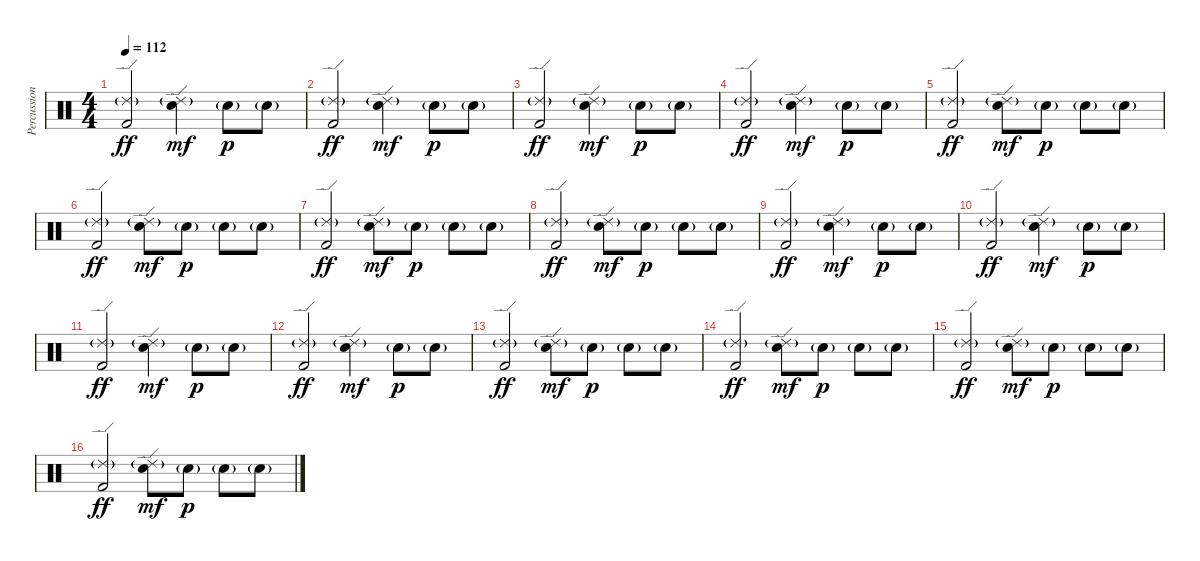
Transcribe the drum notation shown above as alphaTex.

\track ("Percussion" "Percussion") {instrument percussion}
\staff {score}
\articulation defaults
\ts (4 4)
\tempo 112
\clef neutral
\ks c
("Ride (edge) 2"{g} "Kick (hit) 2").2{dy ff} ("Ride (edge) 2"{g} "Electric Snare (hit)").4{dy mf} "Electric Snare (hit)"{g}.8{dy p} "Electric Snare (hit)"{g}.8 |
("Ride (edge) 2"{g} "Kick (hit) 2").2{dy ff} ("Ride (edge) 2"{g} "Electric Snare (hit)").4{dy mf} "Electric Snare (hit)"{g}.8{dy p} "Electric Snare (hit)"{g}.8 |
("Ride (edge) 2"{g} "Kick (hit) 2").2{dy ff} ("Ride (edge) 2"{g} "Electric Snare (hit)").4{dy mf} "Electric Snare (hit)"{g}.8{dy p} "Electric Snare (hit)"{g}.8 |
("Ride (edge) 2"{g} "Kick (hit) 2").2{dy ff} ("Ride (edge) 2"{g} "Electric Snare (hit)").4{dy mf} "Electric Snare (hit)"{g}.8{dy p} "Electric Snare (hit)"{g}.8 |
("Ride (edge) 2"{g} "Kick (hit) 2").2{dy ff} ("Ride (edge) 2"{g} "Electric Snare (hit)").8{dy mf} "Electric Snare (hit)"{g}.8{dy p} "Electric Snare (hit)"{g}.8 "Electric Snare (hit)"{g}.8 |
("Ride (edge) 2"{g} "Kick (hit) 2").2{dy ff} ("Ride (edge) 2"{g} "Electric Snare (hit)").8{dy mf} "Electric Snare (hit)"{g}.8{dy p} "Electric Snare (hit)"{g}.8 "Electric Snare (hit)"{g}.8 |
("Ride (edge) 2"{g} "Kick (hit) 2").2{dy ff} ("Ride (edge) 2"{g} "Electric Snare (hit)").8{dy mf} "Electric Snare (hit)"{g}.8{dy p} "Electric Snare (hit)"{g}.8 "Electric Snare (hit)"{g}.8 |
("Ride (edge) 2"{g} "Kick (hit) 2").2{dy ff} ("Ride (edge) 2"{g} "Electric Snare (hit)").8{dy mf} "Electric Snare (hit)"{g}.8{dy p} "Electric Snare (hit)"{g}.8 "Electric Snare (hit)"{g}.8 |
("Ride (edge) 2"{g} "Kick (hit) 2").2{dy ff} ("Ride (edge) 2"{g} "Electric Snare (hit)").4{dy mf} "Electric Snare (hit)"{g}.8{dy p} "Electric Snare (hit)"{g}.8 |
("Ride (edge) 2"{g} "Kick (hit) 2").2{dy ff} ("Ride (edge) 2"{g} "Electric Snare (hit)").4{dy mf} "Electric Snare (hit)"{g}.8{dy p} "Electric Snare (hit)"{g}.8 |
("Ride (edge) 2"{g} "Kick (hit) 2").2{dy ff} ("Ride (edge) 2"{g} "Electric Snare (hit)").4{dy mf} "Electric Snare (hit)"{g}.8{dy p} "Electric Snare (hit)"{g}.8 |
("Ride (edge) 2"{g} "Kick (hit) 2").2{dy ff} ("Ride (edge) 2"{g} "Electric Snare (hit)").4{dy mf} "Electric Snare (hit)"{g}.8{dy p} "Electric Snare (hit)"{g}.8 |
("Ride (edge) 2"{g} "Kick (hit) 2").2{dy ff} ("Ride (edge) 2"{g} "Electric Snare (hit)").8{dy mf} "Electric Snare (hit)"{g}.8{dy p} "Electric Snare (hit)"{g}.8 "Electric Snare (hit)"{g}.8 |
("Ride (edge) 2"{g} "Kick (hit) 2").2{dy ff} ("Ride (edge) 2"{g} "Electric Snare (hit)").8{dy mf} "Electric Snare (hit)"{g}.8{dy p} "Electric Snare (hit)"{g}.8 "Electric Snare (hit)"{g}.8 |
("Ride (edge) 2"{g} "Kick (hit) 2").2{dy ff} ("Ride (edge) 2"{g} "Electric Snare (hit)").8{dy mf} "Electric Snare (hit)"{g}.8{dy p} "Electric Snare (hit)"{g}.8 "Electric Snare (hit)"{g}.8 |
("Ride (edge) 2"{g} "Kick (hit) 2").2{dy ff} ("Ride (edge) 2"{g} "Electric Snare (hit)").8{dy mf} "Electric Snare (hit)"{g}.8{dy p} "Electric Snare (hit)"{g}.8 "Electric Snare (hit)"{g}.8
